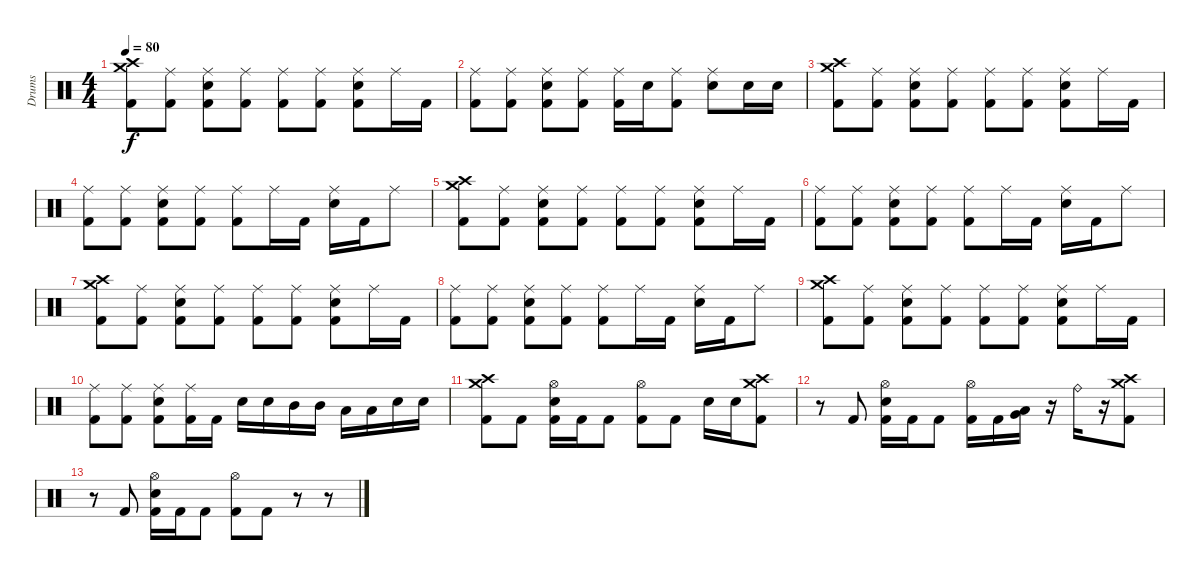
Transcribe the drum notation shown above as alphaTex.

\track ("Drums" "Drums") {instrument percussion}
\staff {score}
\articulation defaults
\ts (4 4)
\tempo 80
\clef neutral
\ks c
("Crash high (hit)" "Crash medium (hit)" "Kick (hit) 2").8{dy f} ("Ride (middle)" "Kick (hit) 2").8 ("Ride (middle)" "Electric Snare (hit)" "Kick (hit) 2").8 ("Ride (middle)" "Kick (hit) 2").8 ("Ride (middle)" "Kick (hit) 2").8 ("Ride (middle)" "Kick (hit) 2").8 ("Ride (middle)" "Electric Snare (hit)" "Kick (hit) 2").8 "Ride (middle)".16 "Kick (hit) 2".16 |
("Ride (middle)" "Kick (hit) 2").8 ("Ride (middle)" "Kick (hit) 2").8 ("Ride (middle)" "Electric Snare (hit)" "Kick (hit) 2").8 ("Ride (middle)" "Kick (hit) 2").8 ("Ride (middle)" "Kick (hit) 2").16 "Electric Snare (hit)".16 ("Ride (middle)" "Kick (hit) 2").8 ("Ride (middle)" "Electric Snare (hit)").8 "Electric Snare (hit)".16 "Electric Snare (hit)".16 |
("Crash high (hit)" "Crash medium (hit)" "Kick (hit) 2").8 ("Ride (middle)" "Kick (hit) 2").8 ("Ride (middle)" "Electric Snare (hit)" "Kick (hit) 2").8 ("Ride (middle)" "Kick (hit) 2").8 ("Ride (middle)" "Kick (hit) 2").8 ("Ride (middle)" "Kick (hit) 2").8 ("Ride (middle)" "Electric Snare (hit)" "Kick (hit) 2").8 "Ride (middle)".16 "Kick (hit) 2".16 |
("Ride (middle)" "Kick (hit) 2").8 ("Ride (middle)" "Kick (hit) 2").8 ("Ride (middle)" "Electric Snare (hit)" "Kick (hit) 2").8 ("Ride (middle)" "Kick (hit) 2").8 ("Ride (middle)" "Kick (hit) 2").8 "Ride (middle)".16 "Kick (hit) 2".16 ("Ride (middle)" "Electric Snare (hit)").16 "Kick (hit) 2".16 "Ride (middle)".8 |
("Crash high (hit)" "Crash medium (hit)" "Kick (hit) 2").8 ("Ride (middle)" "Kick (hit) 2").8 ("Ride (middle)" "Electric Snare (hit)" "Kick (hit) 2").8 ("Ride (middle)" "Kick (hit) 2").8 ("Ride (middle)" "Kick (hit) 2").8 ("Ride (middle)" "Kick (hit) 2").8 ("Ride (middle)" "Electric Snare (hit)" "Kick (hit) 2").8 "Ride (middle)".16 "Kick (hit) 2".16 |
("Ride (middle)" "Kick (hit) 2").8 ("Ride (middle)" "Kick (hit) 2").8 ("Ride (middle)" "Electric Snare (hit)" "Kick (hit) 2").8 ("Ride (middle)" "Kick (hit) 2").8 ("Ride (middle)" "Kick (hit) 2").8 "Ride (middle)".16 "Kick (hit) 2".16 ("Ride (middle)" "Electric Snare (hit)").16 "Kick (hit) 2".16 "Ride (middle)".8 |
("Crash high (hit)" "Crash medium (hit)" "Kick (hit) 2").8 ("Ride (middle)" "Kick (hit) 2").8 ("Ride (middle)" "Electric Snare (hit)" "Kick (hit) 2").8 ("Ride (middle)" "Kick (hit) 2").8 ("Ride (middle)" "Kick (hit) 2").8 ("Ride (middle)" "Kick (hit) 2").8 ("Ride (middle)" "Electric Snare (hit)" "Kick (hit) 2").8 "Ride (middle)".16 "Kick (hit) 2".16 |
("Ride (middle)" "Kick (hit) 2").8 ("Ride (middle)" "Kick (hit) 2").8 ("Ride (middle)" "Electric Snare (hit)" "Kick (hit) 2").8 ("Ride (middle)" "Kick (hit) 2").8 ("Ride (middle)" "Kick (hit) 2").8 "Ride (middle)".16 "Kick (hit) 2".16 ("Ride (middle)" "Electric Snare (hit)").16 "Kick (hit) 2".16 "Ride (middle)".8 |
("Crash high (hit)" "Crash medium (hit)" "Kick (hit) 2").8 ("Ride (middle)" "Kick (hit) 2").8 ("Ride (middle)" "Electric Snare (hit)" "Kick (hit) 2").8 ("Ride (middle)" "Kick (hit) 2").8 ("Ride (middle)" "Kick (hit) 2").8 ("Ride (middle)" "Kick (hit) 2").8 ("Ride (middle)" "Electric Snare (hit)" "Kick (hit) 2").8 "Ride (middle)".16 "Kick (hit) 2".16 |
("Ride (middle)" "Kick (hit) 2").8 ("Ride (middle)" "Kick (hit) 2").8 ("Ride (middle)" "Electric Snare (hit)" "Kick (hit) 2").8 ("Ride (middle)" "Kick (hit) 2").16 "Kick (hit) 2".16 "Electric Snare (hit)".16 "Electric Snare (hit)".16 "Mid Tom (hit)".16 "Mid Tom (hit)".16 "Low Tom (hit)".16 "Low Tom (hit)".16 "Electric Snare (hit)".16 "Electric Snare (hit)".16 |
("Crash high (hit)" "Crash medium (hit)" "Kick (hit) 2").8 "Kick (hit) 2".8 ("Hi-Hat (open)" "Electric Snare (hit)" "Kick (hit) 2").16 "Kick (hit) 2".16 "Kick (hit) 2".8 ("Hi-Hat (open)" "Kick (hit) 2").8 "Kick (hit) 2".8 "Electric Snare (hit)".16 "Electric Snare (hit)".16 ("Crash high (hit)" "Crash medium (hit)" "Kick (hit) 2").8 |
r.8 "Kick (hit) 2".8 ("Hi-Hat (open)" "Electric Snare (hit)" "Kick (hit) 2").16 "Kick (hit) 2".16 "Kick (hit) 2".8 ("Hi-Hat (open)" "Kick (hit) 2").16 "Kick (hit) 2".16 ("Very Low Tom (hit)" "Low Floor Tom (hit)").16 r.16 "Ride (bell)".16 r.16 ("Crash high (hit)" "Crash medium (hit)" "Kick (hit) 2").8 |
r.8 "Kick (hit) 2".8 ("Hi-Hat (open)" "Electric Snare (hit)" "Kick (hit) 2").16 "Kick (hit) 2".16 "Kick (hit) 2".8 ("Hi-Hat (open)" "Kick (hit) 2").8 "Kick (hit) 2".8 r.8 r.8
